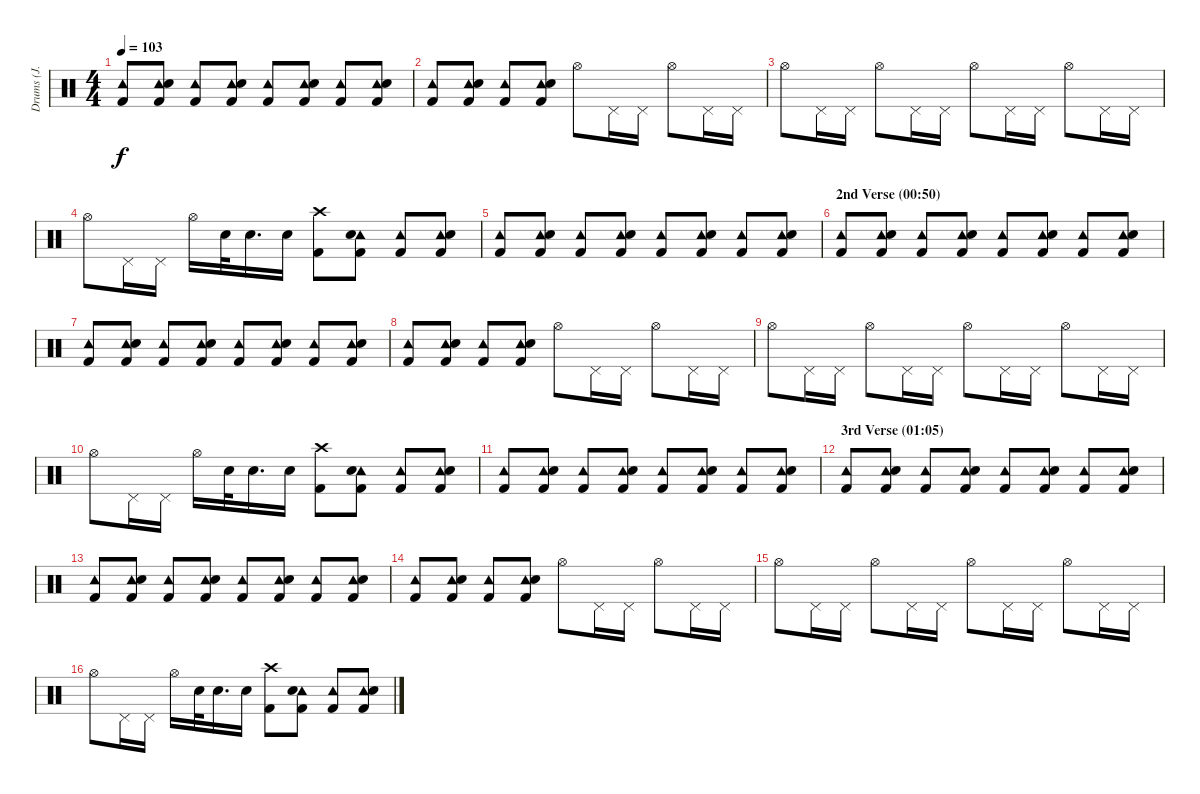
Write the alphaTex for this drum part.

\track ("Drums (J. Cramer)" "Drums (J. ") {instrument percussion}
\staff {score}
\articulation defaults
\ts (4 4)
\tempo 103
\clef neutral
\ks c
("Tambourine (hit)" "Kick (hit) 2").8{dy f} ("Tambourine (hit)" "Electric Snare (hit)" "Kick (hit) 2").8 ("Tambourine (hit)" "Kick (hit) 2").8 ("Tambourine (hit)" "Electric Snare (hit)" "Kick (hit) 2").8 ("Tambourine (hit)" "Kick (hit) 2").8 ("Tambourine (hit)" "Electric Snare (hit)" "Kick (hit) 2").8 ("Tambourine (hit)" "Kick (hit) 2").8 ("Tambourine (hit)" "Electric Snare (hit)" "Kick (hit) 2").8 |
("Tambourine (hit)" "Kick (hit) 2").8 ("Tambourine (hit)" "Electric Snare (hit)" "Kick (hit) 2").8 ("Tambourine (hit)" "Kick (hit) 2").8 ("Tambourine (hit)" "Electric Snare (hit)" "Kick (hit) 2").8 "Hi-Hat (open)".8 "Pedal Hi-Hat (hit)".16 "Pedal Hi-Hat (hit)".16 "Hi-Hat (open)".8 "Pedal Hi-Hat (hit)".16 "Pedal Hi-Hat (hit)".16 |
"Hi-Hat (open)".8 "Pedal Hi-Hat (hit)".16 "Pedal Hi-Hat (hit)".16 "Hi-Hat (open)".8 "Pedal Hi-Hat (hit)".16 "Pedal Hi-Hat (hit)".16 "Hi-Hat (open)".8 "Pedal Hi-Hat (hit)".16 "Pedal Hi-Hat (hit)".16 "Hi-Hat (open)".8 "Pedal Hi-Hat (hit)".16 "Pedal Hi-Hat (hit)".16 |
"Hi-Hat (open)".8 "Pedal Hi-Hat (hit)".16 "Pedal Hi-Hat (hit)".16 "Hi-Hat (open)".16 "Electric Snare (hit)".32 "Electric Snare (hit)".16{d} "Electric Snare (hit)".16 ("Kick (hit) 2" "Crash high (hit)").8 ("Tambourine (hit)" "Electric Snare (hit)" "Kick (hit) 2").8 ("Tambourine (hit)" "Kick (hit) 2").8 ("Tambourine (hit)" "Electric Snare (hit)" "Kick (hit) 2").8 |
("Tambourine (hit)" "Kick (hit) 2").8 ("Tambourine (hit)" "Electric Snare (hit)" "Kick (hit) 2").8 ("Tambourine (hit)" "Kick (hit) 2").8 ("Tambourine (hit)" "Electric Snare (hit)" "Kick (hit) 2").8 ("Tambourine (hit)" "Kick (hit) 2").8 ("Tambourine (hit)" "Electric Snare (hit)" "Kick (hit) 2").8 ("Tambourine (hit)" "Kick (hit) 2").8 ("Tambourine (hit)" "Electric Snare (hit)" "Kick (hit) 2").8 |
\section ("" "2nd Verse (00:50)")
("Tambourine (hit)" "Kick (hit) 2").8 ("Tambourine (hit)" "Electric Snare (hit)" "Kick (hit) 2").8 ("Tambourine (hit)" "Kick (hit) 2").8 ("Tambourine (hit)" "Electric Snare (hit)" "Kick (hit) 2").8 ("Tambourine (hit)" "Kick (hit) 2").8 ("Tambourine (hit)" "Electric Snare (hit)" "Kick (hit) 2").8 ("Tambourine (hit)" "Kick (hit) 2").8 ("Tambourine (hit)" "Electric Snare (hit)" "Kick (hit) 2").8 |
("Tambourine (hit)" "Kick (hit) 2").8 ("Tambourine (hit)" "Electric Snare (hit)" "Kick (hit) 2").8 ("Tambourine (hit)" "Kick (hit) 2").8 ("Tambourine (hit)" "Electric Snare (hit)" "Kick (hit) 2").8 ("Tambourine (hit)" "Kick (hit) 2").8 ("Tambourine (hit)" "Electric Snare (hit)" "Kick (hit) 2").8 ("Tambourine (hit)" "Kick (hit) 2").8 ("Tambourine (hit)" "Electric Snare (hit)" "Kick (hit) 2").8 |
("Tambourine (hit)" "Kick (hit) 2").8 ("Tambourine (hit)" "Electric Snare (hit)" "Kick (hit) 2").8 ("Tambourine (hit)" "Kick (hit) 2").8 ("Tambourine (hit)" "Electric Snare (hit)" "Kick (hit) 2").8 "Hi-Hat (open)".8 "Pedal Hi-Hat (hit)".16 "Pedal Hi-Hat (hit)".16 "Hi-Hat (open)".8 "Pedal Hi-Hat (hit)".16 "Pedal Hi-Hat (hit)".16 |
"Hi-Hat (open)".8 "Pedal Hi-Hat (hit)".16 "Pedal Hi-Hat (hit)".16 "Hi-Hat (open)".8 "Pedal Hi-Hat (hit)".16 "Pedal Hi-Hat (hit)".16 "Hi-Hat (open)".8 "Pedal Hi-Hat (hit)".16 "Pedal Hi-Hat (hit)".16 "Hi-Hat (open)".8 "Pedal Hi-Hat (hit)".16 "Pedal Hi-Hat (hit)".16 |
"Hi-Hat (open)".8 "Pedal Hi-Hat (hit)".16 "Pedal Hi-Hat (hit)".16 "Hi-Hat (open)".16 "Electric Snare (hit)".32 "Electric Snare (hit)".16{d} "Electric Snare (hit)".16 ("Kick (hit) 2" "Crash high (hit)").8 ("Tambourine (hit)" "Electric Snare (hit)" "Kick (hit) 2").8 ("Tambourine (hit)" "Kick (hit) 2").8 ("Tambourine (hit)" "Electric Snare (hit)" "Kick (hit) 2").8 |
("Tambourine (hit)" "Kick (hit) 2").8 ("Tambourine (hit)" "Electric Snare (hit)" "Kick (hit) 2").8 ("Tambourine (hit)" "Kick (hit) 2").8 ("Tambourine (hit)" "Electric Snare (hit)" "Kick (hit) 2").8 ("Tambourine (hit)" "Kick (hit) 2").8 ("Tambourine (hit)" "Electric Snare (hit)" "Kick (hit) 2").8 ("Tambourine (hit)" "Kick (hit) 2").8 ("Tambourine (hit)" "Electric Snare (hit)" "Kick (hit) 2").8 |
\section ("" "3rd Verse (01:05)")
("Tambourine (hit)" "Kick (hit) 2").8 ("Tambourine (hit)" "Electric Snare (hit)" "Kick (hit) 2").8 ("Tambourine (hit)" "Kick (hit) 2").8 ("Tambourine (hit)" "Electric Snare (hit)" "Kick (hit) 2").8 ("Tambourine (hit)" "Kick (hit) 2").8 ("Tambourine (hit)" "Electric Snare (hit)" "Kick (hit) 2").8 ("Tambourine (hit)" "Kick (hit) 2").8 ("Tambourine (hit)" "Electric Snare (hit)" "Kick (hit) 2").8 |
("Tambourine (hit)" "Kick (hit) 2").8 ("Tambourine (hit)" "Electric Snare (hit)" "Kick (hit) 2").8 ("Tambourine (hit)" "Kick (hit) 2").8 ("Tambourine (hit)" "Electric Snare (hit)" "Kick (hit) 2").8 ("Tambourine (hit)" "Kick (hit) 2").8 ("Tambourine (hit)" "Electric Snare (hit)" "Kick (hit) 2").8 ("Tambourine (hit)" "Kick (hit) 2").8 ("Tambourine (hit)" "Electric Snare (hit)" "Kick (hit) 2").8 |
("Tambourine (hit)" "Kick (hit) 2").8 ("Tambourine (hit)" "Electric Snare (hit)" "Kick (hit) 2").8 ("Tambourine (hit)" "Kick (hit) 2").8 ("Tambourine (hit)" "Electric Snare (hit)" "Kick (hit) 2").8 "Hi-Hat (open)".8 "Pedal Hi-Hat (hit)".16 "Pedal Hi-Hat (hit)".16 "Hi-Hat (open)".8 "Pedal Hi-Hat (hit)".16 "Pedal Hi-Hat (hit)".16 |
"Hi-Hat (open)".8 "Pedal Hi-Hat (hit)".16 "Pedal Hi-Hat (hit)".16 "Hi-Hat (open)".8 "Pedal Hi-Hat (hit)".16 "Pedal Hi-Hat (hit)".16 "Hi-Hat (open)".8 "Pedal Hi-Hat (hit)".16 "Pedal Hi-Hat (hit)".16 "Hi-Hat (open)".8 "Pedal Hi-Hat (hit)".16 "Pedal Hi-Hat (hit)".16 |
"Hi-Hat (open)".8 "Pedal Hi-Hat (hit)".16 "Pedal Hi-Hat (hit)".16 "Hi-Hat (open)".16 "Electric Snare (hit)".32 "Electric Snare (hit)".16{d} "Electric Snare (hit)".16 ("Kick (hit) 2" "Crash high (hit)").8 ("Tambourine (hit)" "Electric Snare (hit)" "Kick (hit) 2").8 ("Tambourine (hit)" "Kick (hit) 2").8 ("Tambourine (hit)" "Electric Snare (hit)" "Kick (hit) 2").8
